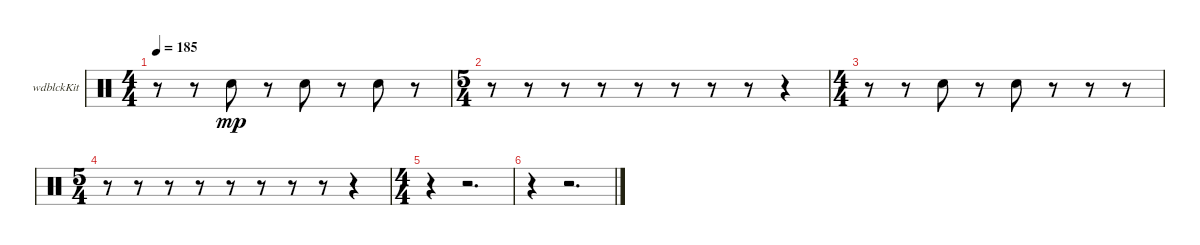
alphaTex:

\bracketExtendMode groupsimilarinstruments
\firstSystemTrackNameOrientation horizontal
\otherSystemsTrackNameOrientation horizontal
\track ("Woodblock" "wdblckKit") {instrument percussion}
\staff {score}
\articulation defaults
\ts (4 4)
\beaming (8 2 2 2 2)
\tempo 185
\clef neutral
\ks c
r.8{dy mf} r.8 "Snare (hit) 2".8{dy mp} r.8 "Snare (hit) 2".8 r.8 "Snare (hit) 2".8 r.8 |
\ts (5 4)
\beaming (8 2 2 2 4)
r.8 r.8 r.8 r.8 r.8 r.8 r.8 r.8 r.4 |
\ts (4 4)
\beaming (8 2 2 2 2)
r.8 r.8 "Snare (hit) 2".8 r.8 "Snare (hit) 2".8 r.8 r.8 r.8 |
\ts (5 4)
\beaming (8 2 2 2 4)
r.8 r.8 r.8 r.8 r.8 r.8 r.8 r.8 r.4 |
\ts (4 4)
\beaming (8 2 2 2 2)
r.4 r.2{d} |
r.4 r.2{d}
